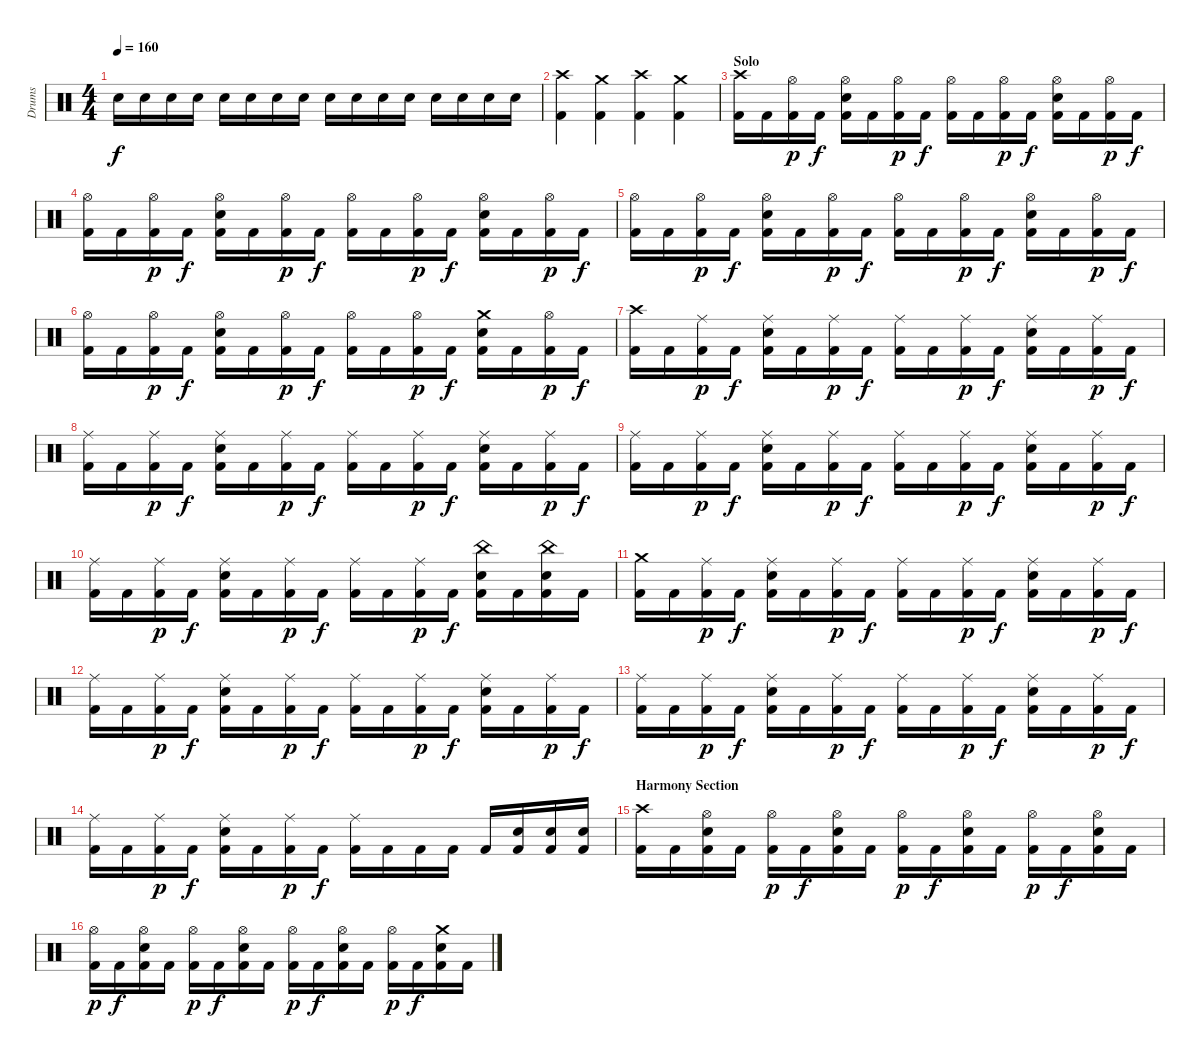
\track ("Drums" "Drums") {instrument percussion}
\staff {score}
\articulation defaults
\ts (4 4)
\tempo 160
\clef neutral
\ks c "Snare (hit) 2".16{dy f} "Snare (hit) 2".16 "Snare (hit) 2".16 "Snare (hit) 2".16 "Snare (hit) 2".16 "Snare (hit) 2".16 "Snare (hit) 2".16 "Snare (hit) 2".16 "Snare (hit) 2".16 "Snare (hit) 2".16 "Snare (hit) 2".16 "Snare (hit) 2".16 "Snare (hit) 2".16 "Snare (hit) 2".16 "Snare (hit) 2".16 "Snare (hit) 2".16
|
("Crash high (hit)" "Kick (hit) 2").4 ("Crash medium (hit)" "Kick (hit) 2").4 ("Crash high (hit)" "Kick (hit) 2").4 ("Crash medium (hit)" "Kick (hit) 2").4 |
\section ("" "Solo")
("Crash high (hit)" "Kick (hit) 2").16 "Kick (hit) 2".16 ("Hi-Hat (open)" "Kick (hit) 2").16{dy p} "Kick (hit) 2".16{dy f} ("Hi-Hat (open)" "Snare (hit) 2" "Kick (hit) 2").16 "Kick (hit) 2".16 ("Hi-Hat (open)" "Kick (hit) 2").16{dy p} "Kick (hit) 2".16{dy f} ("Hi-Hat (open)" "Kick (hit) 2").16 "Kick (hit) 2".16 ("Hi-Hat (open)" "Kick (hit) 2").16{dy p} "Kick (hit) 2".16{dy f} ("Hi-Hat (open)" "Snare (hit) 2" "Kick (hit) 2").16 "Kick (hit) 2".16 ("Hi-Hat (open)" "Kick (hit) 2").16{dy p} "Kick (hit) 2".16{dy f} |
("Hi-Hat (open)" "Kick (hit) 2").16 "Kick (hit) 2".16 ("Hi-Hat (open)" "Kick (hit) 2").16{dy p} "Kick (hit) 2".16{dy f} ("Hi-Hat (open)" "Snare (hit) 2" "Kick (hit) 2").16 "Kick (hit) 2".16 ("Hi-Hat (open)" "Kick (hit) 2").16{dy p} "Kick (hit) 2".16{dy f} ("Hi-Hat (open)" "Kick (hit) 2").16 "Kick (hit) 2".16 ("Hi-Hat (open)" "Kick (hit) 2").16{dy p} "Kick (hit) 2".16{dy f} ("Hi-Hat (open)" "Snare (hit) 2" "Kick (hit) 2").16 "Kick (hit) 2".16 ("Hi-Hat (open)" "Kick (hit) 2").16{dy p} "Kick (hit) 2".16{dy f} |
("Hi-Hat (open)" "Kick (hit) 2").16 "Kick (hit) 2".16 ("Hi-Hat (open)" "Kick (hit) 2").16{dy p} "Kick (hit) 2".16{dy f} ("Hi-Hat (open)" "Snare (hit) 2" "Kick (hit) 2").16 "Kick (hit) 2".16 ("Hi-Hat (open)" "Kick (hit) 2").16{dy p} "Kick (hit) 2".16{dy f} ("Hi-Hat (open)" "Kick (hit) 2").16 "Kick (hit) 2".16 ("Hi-Hat (open)" "Kick (hit) 2").16{dy p} "Kick (hit) 2".16{dy f} ("Hi-Hat (open)" "Snare (hit) 2" "Kick (hit) 2").16 "Kick (hit) 2".16 ("Hi-Hat (open)" "Kick (hit) 2").16{dy p} "Kick (hit) 2".16{dy f} |
("Hi-Hat (open)" "Kick (hit) 2").16 "Kick (hit) 2".16 ("Hi-Hat (open)" "Kick (hit) 2").16{dy p} "Kick (hit) 2".16{dy f} ("Hi-Hat (open)" "Snare (hit) 2" "Kick (hit) 2").16 "Kick (hit) 2".16 ("Hi-Hat (open)" "Kick (hit) 2").16{dy p} "Kick (hit) 2".16{dy f} ("Hi-Hat (open)" "Kick (hit) 2").16 "Kick (hit) 2".16 ("Hi-Hat (open)" "Kick (hit) 2").16{dy p} "Kick (hit) 2".16{dy f} ("Crash medium (hit)" "Snare (hit) 2" "Kick (hit) 2").16 "Kick (hit) 2".16 ("Hi-Hat (open)" "Kick (hit) 2").16{dy p} "Kick (hit) 2".16{dy f} |
("Crash high (hit)" "Kick (hit) 2").16 "Kick (hit) 2".16 ("Ride (middle)" "Kick (hit) 2").16{dy p} "Kick (hit) 2".16{dy f} ("Ride (middle)" "Snare (hit) 2" "Kick (hit) 2").16 "Kick (hit) 2".16 ("Ride (middle)" "Kick (hit) 2").16{dy p} "Kick (hit) 2".16{dy f} ("Ride (middle)" "Kick (hit) 2").16 "Kick (hit) 2".16 ("Ride (middle)" "Kick (hit) 2").16{dy p} "Kick (hit) 2".16{dy f} ("Ride (middle)" "Snare (hit) 2" "Kick (hit) 2").16 "Kick (hit) 2".16 ("Ride (middle)" "Kick (hit) 2").16{dy p} "Kick (hit) 2".16{dy f} |
("Ride (middle)" "Kick (hit) 2").16 "Kick (hit) 2".16 ("Ride (middle)" "Kick (hit) 2").16{dy p} "Kick (hit) 2".16{dy f} ("Ride (middle)" "Snare (hit) 2" "Kick (hit) 2").16 "Kick (hit) 2".16 ("Ride (middle)" "Kick (hit) 2").16{dy p} "Kick (hit) 2".16{dy f} ("Ride (middle)" "Kick (hit) 2").16 "Kick (hit) 2".16 ("Ride (middle)" "Kick (hit) 2").16{dy p} "Kick (hit) 2".16{dy f} ("Ride (middle)" "Snare (hit) 2" "Kick (hit) 2").16 "Kick (hit) 2".16 ("Ride (middle)" "Kick (hit) 2").16{dy p} "Kick (hit) 2".16{dy f} |
("Ride (middle)" "Kick (hit) 2").16 "Kick (hit) 2".16 ("Ride (middle)" "Kick (hit) 2").16{dy p} "Kick (hit) 2".16{dy f} ("Ride (middle)" "Snare (hit) 2" "Kick (hit) 2").16 "Kick (hit) 2".16 ("Ride (middle)" "Kick (hit) 2").16{dy p} "Kick (hit) 2".16{dy f} ("Ride (middle)" "Kick (hit) 2").16 "Kick (hit) 2".16 ("Ride (middle)" "Kick (hit) 2").16{dy p} "Kick (hit) 2".16{dy f} ("Ride (middle)" "Snare (hit) 2" "Kick (hit) 2").16 "Kick (hit) 2".16 ("Ride (middle)" "Kick (hit) 2").16{dy p} "Kick (hit) 2".16{dy f} |
("Ride (middle)" "Kick (hit) 2").16 "Kick (hit) 2".16 ("Ride (middle)" "Kick (hit) 2").16{dy p} "Kick (hit) 2".16{dy f} ("Ride (middle)" "Snare (hit) 2" "Kick (hit) 2").16 "Kick (hit) 2".16 ("Ride (middle)" "Kick (hit) 2").16{dy p} "Kick (hit) 2".16{dy f} ("Ride (middle)" "Kick (hit) 2").16 "Kick (hit) 2".16 ("Ride (middle)" "Kick (hit) 2").16{dy p} "Kick (hit) 2".16{dy f} ("China (hit)" "Snare (hit) 2" "Kick (hit) 2").16 "Kick (hit) 2".16 ("China (hit)" "Snare (hit) 2" "Kick (hit) 2").16 "Kick (hit) 2".16 |
("Crash medium (hit)" "Kick (hit) 2").16 "Kick (hit) 2".16 ("Ride (middle)" "Kick (hit) 2").16{dy p} "Kick (hit) 2".16{dy f} ("Ride (middle)" "Snare (hit) 2" "Kick (hit) 2").16 "Kick (hit) 2".16 ("Ride (middle)" "Kick (hit) 2").16{dy p} "Kick (hit) 2".16{dy f} ("Ride (middle)" "Kick (hit) 2").16 "Kick (hit) 2".16 ("Ride (middle)" "Kick (hit) 2").16{dy p} "Kick (hit) 2".16{dy f} ("Ride (middle)" "Snare (hit) 2" "Kick (hit) 2").16 "Kick (hit) 2".16 ("Ride (middle)" "Kick (hit) 2").16{dy p} "Kick (hit) 2".16{dy f} |
("Ride (middle)" "Kick (hit) 2").16 "Kick (hit) 2".16 ("Ride (middle)" "Kick (hit) 2").16{dy p} "Kick (hit) 2".16{dy f} ("Ride (middle)" "Snare (hit) 2" "Kick (hit) 2").16 "Kick (hit) 2".16 ("Ride (middle)" "Kick (hit) 2").16{dy p} "Kick (hit) 2".16{dy f} ("Ride (middle)" "Kick (hit) 2").16 "Kick (hit) 2".16 ("Ride (middle)" "Kick (hit) 2").16{dy p} "Kick (hit) 2".16{dy f} ("Ride (middle)" "Snare (hit) 2" "Kick (hit) 2").16 "Kick (hit) 2".16 ("Ride (middle)" "Kick (hit) 2").16{dy p} "Kick (hit) 2".16{dy f} |
("Ride (middle)" "Kick (hit) 2").16 "Kick (hit) 2".16 ("Ride (middle)" "Kick (hit) 2").16{dy p} "Kick (hit) 2".16{dy f} ("Ride (middle)" "Snare (hit) 2" "Kick (hit) 2").16 "Kick (hit) 2".16 ("Ride (middle)" "Kick (hit) 2").16{dy p} "Kick (hit) 2".16{dy f} ("Ride (middle)" "Kick (hit) 2").16 "Kick (hit) 2".16 ("Ride (middle)" "Kick (hit) 2").16{dy p} "Kick (hit) 2".16{dy f} ("Ride (middle)" "Snare (hit) 2" "Kick (hit) 2").16 "Kick (hit) 2".16 ("Ride (middle)" "Kick (hit) 2").16{dy p} "Kick (hit) 2".16{dy f} |
("Ride (middle)" "Kick (hit) 2").16 "Kick (hit) 2".16 ("Ride (middle)" "Kick (hit) 2").16{dy p} "Kick (hit) 2".16{dy f} ("Ride (middle)" "Snare (hit) 2" "Kick (hit) 2").16 "Kick (hit) 2".16 ("Ride (middle)" "Kick (hit) 2").16{dy p} "Kick (hit) 2".16{dy f} ("Ride (middle)" "Kick (hit) 2").16 "Kick (hit) 2".16 "Kick (hit) 2".16 "Kick (hit) 2".16 "Kick (hit) 2".16 ("Snare (hit) 2" "Kick (hit) 2").16 ("Snare (hit) 2" "Kick (hit) 2").16 ("Snare (hit) 2" "Kick (hit) 2").16 |
\section ("" "Harmony Section")
("Crash high (hit)" "Kick (hit) 2").16 "Kick (hit) 2".16 ("Hi-Hat (open)" "Snare (hit) 2" "Kick (hit) 2").16 "Kick (hit) 2".16 ("Hi-Hat (open)" "Kick (hit) 2").16{dy p} "Kick (hit) 2".16{dy f} ("Hi-Hat (open)" "Snare (hit) 2" "Kick (hit) 2").16 "Kick (hit) 2".16 ("Hi-Hat (open)" "Kick (hit) 2").16{dy p} "Kick (hit) 2".16{dy f} ("Hi-Hat (open)" "Snare (hit) 2" "Kick (hit) 2").16 "Kick (hit) 2".16 ("Hi-Hat (open)" "Kick (hit) 2").16{dy p} "Kick (hit) 2".16{dy f} ("Hi-Hat (open)" "Snare (hit) 2" "Kick (hit) 2").16 "Kick (hit) 2".16 |
("Hi-Hat (open)" "Kick (hit) 2").16{dy p} "Kick (hit) 2".16{dy f} ("Hi-Hat (open)" "Snare (hit) 2" "Kick (hit) 2").16 "Kick (hit) 2".16 ("Hi-Hat (open)" "Kick (hit) 2").16{dy p} "Kick (hit) 2".16{dy f} ("Hi-Hat (open)" "Snare (hit) 2" "Kick (hit) 2").16 "Kick (hit) 2".16 ("Hi-Hat (open)" "Kick (hit) 2").16{dy p} "Kick (hit) 2".16{dy f} ("Hi-Hat (open)" "Snare (hit) 2" "Kick (hit) 2").16 "Kick (hit) 2".16 ("Hi-Hat (open)" "Kick (hit) 2").16{dy p} "Kick (hit) 2".16{dy f} ("Crash medium (hit)" "Snare (hit) 2" "Kick (hit) 2").16 "Kick (hit) 2".16
